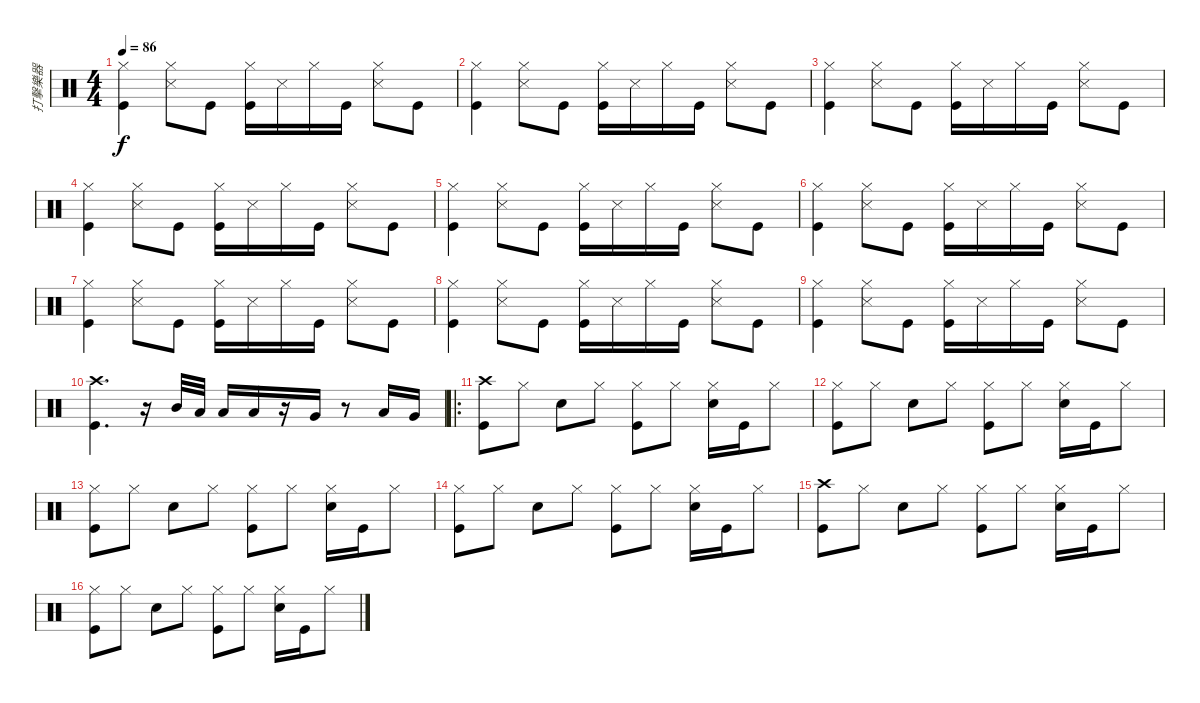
\track ("打擊樂器" "打擊樂器") {instrument percussion}
\staff {score}
\articulation defaults
\ts (4 4)
\tempo 86
\clef neutral
\ks c
("Hi-Hat (closed)" "Kick (hit)").4{dy f} ("Hi-Hat (closed)" "Snare (side stick) 3").8 "Kick (hit)".8 ("Hi-Hat (closed)" "Kick (hit)").16 "Snare (side stick) 3".16 "Hi-Hat (closed)".16 "Kick (hit)".16 ("Hi-Hat (closed)" "Snare (side stick) 3").8 "Kick (hit)".8 |
("Hi-Hat (closed)" "Kick (hit)").4 ("Hi-Hat (closed)" "Snare (side stick) 3").8 "Kick (hit)".8 ("Hi-Hat (closed)" "Kick (hit)").16 "Snare (side stick) 3".16 "Hi-Hat (closed)".16 "Kick (hit)".16 ("Hi-Hat (closed)" "Snare (side stick) 3").8 "Kick (hit)".8 |
("Hi-Hat (closed)" "Kick (hit)").4 ("Hi-Hat (closed)" "Snare (side stick) 3").8 "Kick (hit)".8 ("Hi-Hat (closed)" "Kick (hit)").16 "Snare (side stick) 3".16 "Hi-Hat (closed)".16 "Kick (hit)".16 ("Hi-Hat (closed)" "Snare (side stick) 3").8 "Kick (hit)".8 |
("Hi-Hat (closed)" "Kick (hit)").4 ("Hi-Hat (closed)" "Snare (side stick) 3").8 "Kick (hit)".8 ("Hi-Hat (closed)" "Kick (hit)").16 "Snare (side stick) 3".16 "Hi-Hat (closed)".16 "Kick (hit)".16 ("Hi-Hat (closed)" "Snare (side stick) 3").8 "Kick (hit)".8 |
("Hi-Hat (closed)" "Kick (hit)").4 ("Hi-Hat (closed)" "Snare (side stick) 3").8 "Kick (hit)".8 ("Hi-Hat (closed)" "Kick (hit)").16 "Snare (side stick) 3".16 "Hi-Hat (closed)".16 "Kick (hit)".16 ("Hi-Hat (closed)" "Snare (side stick) 3").8 "Kick (hit)".8 |
("Hi-Hat (closed)" "Kick (hit)").4 ("Hi-Hat (closed)" "Snare (side stick) 3").8 "Kick (hit)".8 ("Hi-Hat (closed)" "Kick (hit)").16 "Snare (side stick) 3".16 "Hi-Hat (closed)".16 "Kick (hit)".16 ("Hi-Hat (closed)" "Snare (side stick) 3").8 "Kick (hit)".8 |
("Hi-Hat (closed)" "Kick (hit)").4 ("Hi-Hat (closed)" "Snare (side stick) 3").8 "Kick (hit)".8 ("Hi-Hat (closed)" "Kick (hit)").16 "Snare (side stick) 3".16 "Hi-Hat (closed)".16 "Kick (hit)".16 ("Hi-Hat (closed)" "Snare (side stick) 3").8 "Kick (hit)".8 |
("Hi-Hat (closed)" "Kick (hit)").4 ("Hi-Hat (closed)" "Snare (side stick) 3").8 "Kick (hit)".8 ("Hi-Hat (closed)" "Kick (hit)").16 "Snare (side stick) 3".16 "Hi-Hat (closed)".16 "Kick (hit)".16 ("Hi-Hat (closed)" "Snare (side stick) 3").8 "Kick (hit)".8 |
("Hi-Hat (closed)" "Kick (hit)").4 ("Hi-Hat (closed)" "Snare (side stick) 3").8 "Kick (hit)".8 ("Hi-Hat (closed)" "Kick (hit)").16 "Snare (side stick) 3".16 "Hi-Hat (closed)".16 "Kick (hit)".16 ("Hi-Hat (closed)" "Snare (side stick) 3").8 "Kick (hit)".8 |
("Crash high (hit)" "Kick (hit)").4{d} r.16 "Mid Tom (hit)".32 "Low Tom (hit)".32 "Low Tom (hit)".16 "Low Tom (hit)".16 r.16 "Very Low Tom (hit)".16 r.8 "Low Tom (hit)".16 "Very Low Tom (hit)".16 |
\ro
("Crash high (hit)" "Kick (hit)").8 "Hi-Hat (closed)".8 "Snare (hit) 2".8 "Hi-Hat (closed)".8 ("Hi-Hat (closed)" "Kick (hit)").8 "Hi-Hat (closed)".8 ("Hi-Hat (closed)" "Snare (hit) 2").16 "Kick (hit)".16 "Hi-Hat (closed)".8 |
("Hi-Hat (closed)" "Kick (hit)").8 "Hi-Hat (closed)".8 "Snare (hit) 2".8 "Hi-Hat (closed)".8 ("Hi-Hat (closed)" "Kick (hit)").8 "Hi-Hat (closed)".8 ("Hi-Hat (closed)" "Snare (hit) 2").16 "Kick (hit)".16 "Hi-Hat (closed)".8 |
("Hi-Hat (closed)" "Kick (hit)").8 "Hi-Hat (closed)".8 "Snare (hit) 2".8 "Hi-Hat (closed)".8 ("Hi-Hat (closed)" "Kick (hit)").8 "Hi-Hat (closed)".8 ("Hi-Hat (closed)" "Snare (hit) 2").16 "Kick (hit)".16 "Hi-Hat (closed)".8 |
("Hi-Hat (closed)" "Kick (hit)").8 "Hi-Hat (closed)".8 "Snare (hit) 2".8 "Hi-Hat (closed)".8 ("Hi-Hat (closed)" "Kick (hit)").8 "Hi-Hat (closed)".8 ("Hi-Hat (closed)" "Snare (hit) 2").16 "Kick (hit)".16 "Hi-Hat (closed)".8 |
("Crash high (hit)" "Kick (hit)").8 "Hi-Hat (closed)".8 "Snare (hit) 2".8 "Hi-Hat (closed)".8 ("Hi-Hat (closed)" "Kick (hit)").8 "Hi-Hat (closed)".8 ("Hi-Hat (closed)" "Snare (hit) 2").16 "Kick (hit)".16 "Hi-Hat (closed)".8 |
("Hi-Hat (closed)" "Kick (hit)").8 "Hi-Hat (closed)".8 "Snare (hit) 2".8 "Hi-Hat (closed)".8 ("Hi-Hat (closed)" "Kick (hit)").8 "Hi-Hat (closed)".8 ("Hi-Hat (closed)" "Snare (hit) 2").16 "Kick (hit)".16 "Hi-Hat (closed)".8
